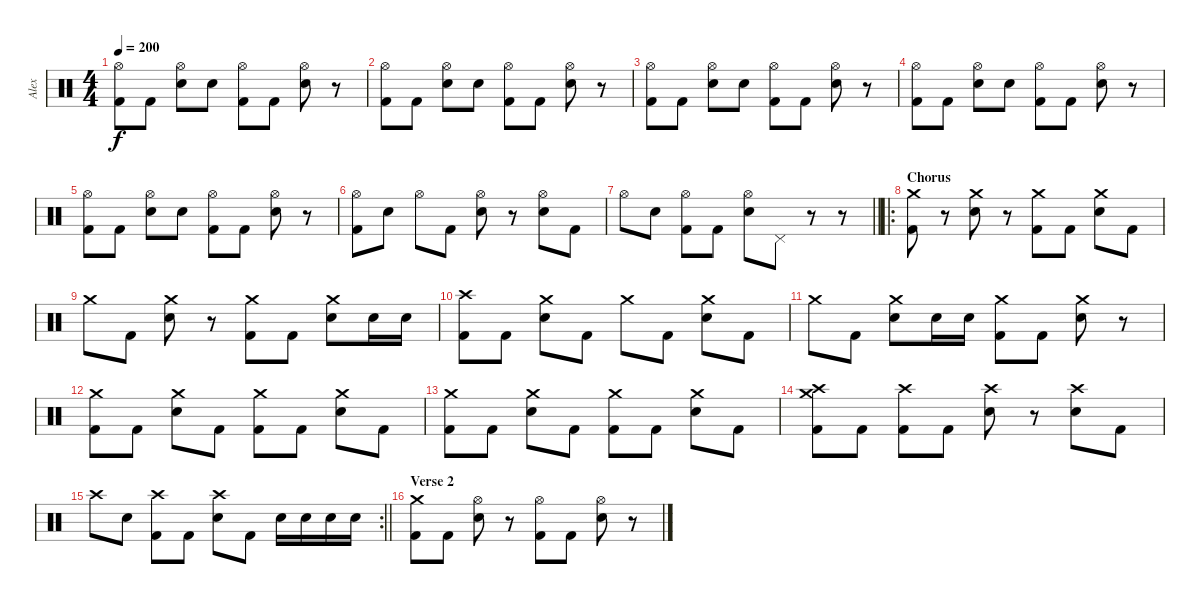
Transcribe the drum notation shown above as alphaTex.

\track ("Alex" "Alex") {instrument percussion}
\staff {score}
\articulation defaults
\ts (4 4)
\tempo 200
\clef neutral
\ks c
("Hi-Hat (open)" "Kick (hit) 2").8{dy f} "Kick (hit) 2".8 ("Hi-Hat (open)" "Electric Snare (hit)").8 "Electric Snare (hit)".8 ("Hi-Hat (open)" "Kick (hit) 2").8 "Kick (hit) 2".8 ("Hi-Hat (open)" "Electric Snare (hit)").8 r.8 |
("Hi-Hat (open)" "Kick (hit) 2").8 "Kick (hit) 2".8 ("Hi-Hat (open)" "Electric Snare (hit)").8 "Electric Snare (hit)".8 ("Hi-Hat (open)" "Kick (hit) 2").8 "Kick (hit) 2".8 ("Hi-Hat (open)" "Electric Snare (hit)").8 r.8 |
("Hi-Hat (open)" "Kick (hit) 2").8 "Kick (hit) 2".8 ("Hi-Hat (open)" "Electric Snare (hit)").8 "Electric Snare (hit)".8 ("Hi-Hat (open)" "Kick (hit) 2").8 "Kick (hit) 2".8 ("Hi-Hat (open)" "Electric Snare (hit)").8 r.8 |
("Hi-Hat (open)" "Kick (hit) 2").8 "Kick (hit) 2".8 ("Hi-Hat (open)" "Electric Snare (hit)").8 "Electric Snare (hit)".8 ("Hi-Hat (open)" "Kick (hit) 2").8 "Kick (hit) 2".8 ("Hi-Hat (open)" "Electric Snare (hit)").8 r.8 |
("Hi-Hat (open)" "Kick (hit) 2").8 "Kick (hit) 2".8 ("Hi-Hat (open)" "Electric Snare (hit)").8 "Electric Snare (hit)".8 ("Hi-Hat (open)" "Kick (hit) 2").8 "Kick (hit) 2".8 ("Hi-Hat (open)" "Electric Snare (hit)").8 r.8 |
("Hi-Hat (open)" "Kick (hit) 2").8 "Electric Snare (hit)".8 "Hi-Hat (open)".8 "Kick (hit) 2".8 ("Hi-Hat (open)" "Electric Snare (hit)").8 r.8 ("Hi-Hat (open)" "Electric Snare (hit)").8 "Kick (hit) 2".8 |
\barLineRight lightlight "Hi-Hat (open)".8 "Electric Snare (hit)".8
("Hi-Hat (open)" "Kick (hit) 2").8 "Kick (hit) 2".8 ("Hi-Hat (open)" "Electric Snare (hit)").8 "Pedal Hi-Hat (hit)".8 r.8 r.8 |
\ro
\section ("" "Chorus")
("Crash medium (hit)" "Kick (hit) 2").8 r.8 ("Crash medium (hit)" "Electric Snare (hit)").8 r.8 ("Crash medium (hit)" "Kick (hit) 2").8 "Kick (hit) 2".8 ("Crash medium (hit)" "Electric Snare (hit)").8 "Kick (hit) 2".8 |
"Crash medium (hit)".8 "Kick (hit) 2".8 ("Crash medium (hit)" "Electric Snare (hit)").8 r.8 ("Crash medium (hit)" "Kick (hit) 2").8 "Kick (hit) 2".8 ("Crash medium (hit)" "Electric Snare (hit)").8 "Electric Snare (hit)".16 "Electric Snare (hit)".16 |
("Crash high (hit)" "Kick (hit) 2").8 "Kick (hit) 2".8 ("Crash medium (hit)" "Electric Snare (hit)").8 "Kick (hit) 2".8 "Crash medium (hit)".8 "Kick (hit) 2".8 ("Crash medium (hit)" "Electric Snare (hit)").8 "Kick (hit) 2".8 |
"Crash medium (hit)".8 "Kick (hit) 2".8 ("Crash medium (hit)" "Electric Snare (hit)").8 "Electric Snare (hit)".16 "Electric Snare (hit)".16 ("Crash medium (hit)" "Kick (hit) 2").8 "Kick (hit) 2".8 ("Crash medium (hit)" "Electric Snare (hit)").8 r.8 |
("Crash medium (hit)" "Kick (hit) 2").8 "Kick (hit) 2".8 ("Crash medium (hit)" "Electric Snare (hit)").8 "Kick (hit) 2".8 ("Crash medium (hit)" "Kick (hit) 2").8 "Kick (hit) 2".8 ("Crash medium (hit)" "Electric Snare (hit)").8 "Kick (hit) 2".8 |
("Crash medium (hit)" "Kick (hit) 2").8 "Kick (hit) 2".8 ("Crash medium (hit)" "Electric Snare (hit)").8 "Kick (hit) 2".8 ("Crash medium (hit)" "Kick (hit) 2").8 "Kick (hit) 2".8 ("Crash medium (hit)" "Electric Snare (hit)").8 "Kick (hit) 2".8 |
("Crash medium (hit)" "Crash high (hit)" "Kick (hit) 2").8 "Kick (hit) 2".8 ("Crash high (hit)" "Kick (hit) 2").8 "Kick (hit) 2".8 ("Crash high (hit)" "Electric Snare (hit)").8 r.8 ("Crash high (hit)" "Electric Snare (hit)").8 "Kick (hit) 2".8 |
\rc 2
\barLineRight lightlight "Crash high (hit)".8 "Electric Snare (hit)".8
("Crash high (hit)" "Kick (hit) 2").8 "Kick (hit) 2".8 ("Crash high (hit)" "Electric Snare (hit)").8 "Kick (hit) 2".8 "Electric Snare (hit)".16 "Electric Snare (hit)".16 "Electric Snare (hit)".16 "Electric Snare (hit)".16 |
\section ("" "Verse 2")
("Crash medium (hit)" "Kick (hit) 2").8 "Kick (hit) 2".8 ("Hi-Hat (open)" "Electric Snare (hit)").8 r.8 ("Hi-Hat (open)" "Kick (hit) 2").8 "Kick (hit) 2".8 ("Hi-Hat (open)" "Electric Snare (hit)").8 r.8
